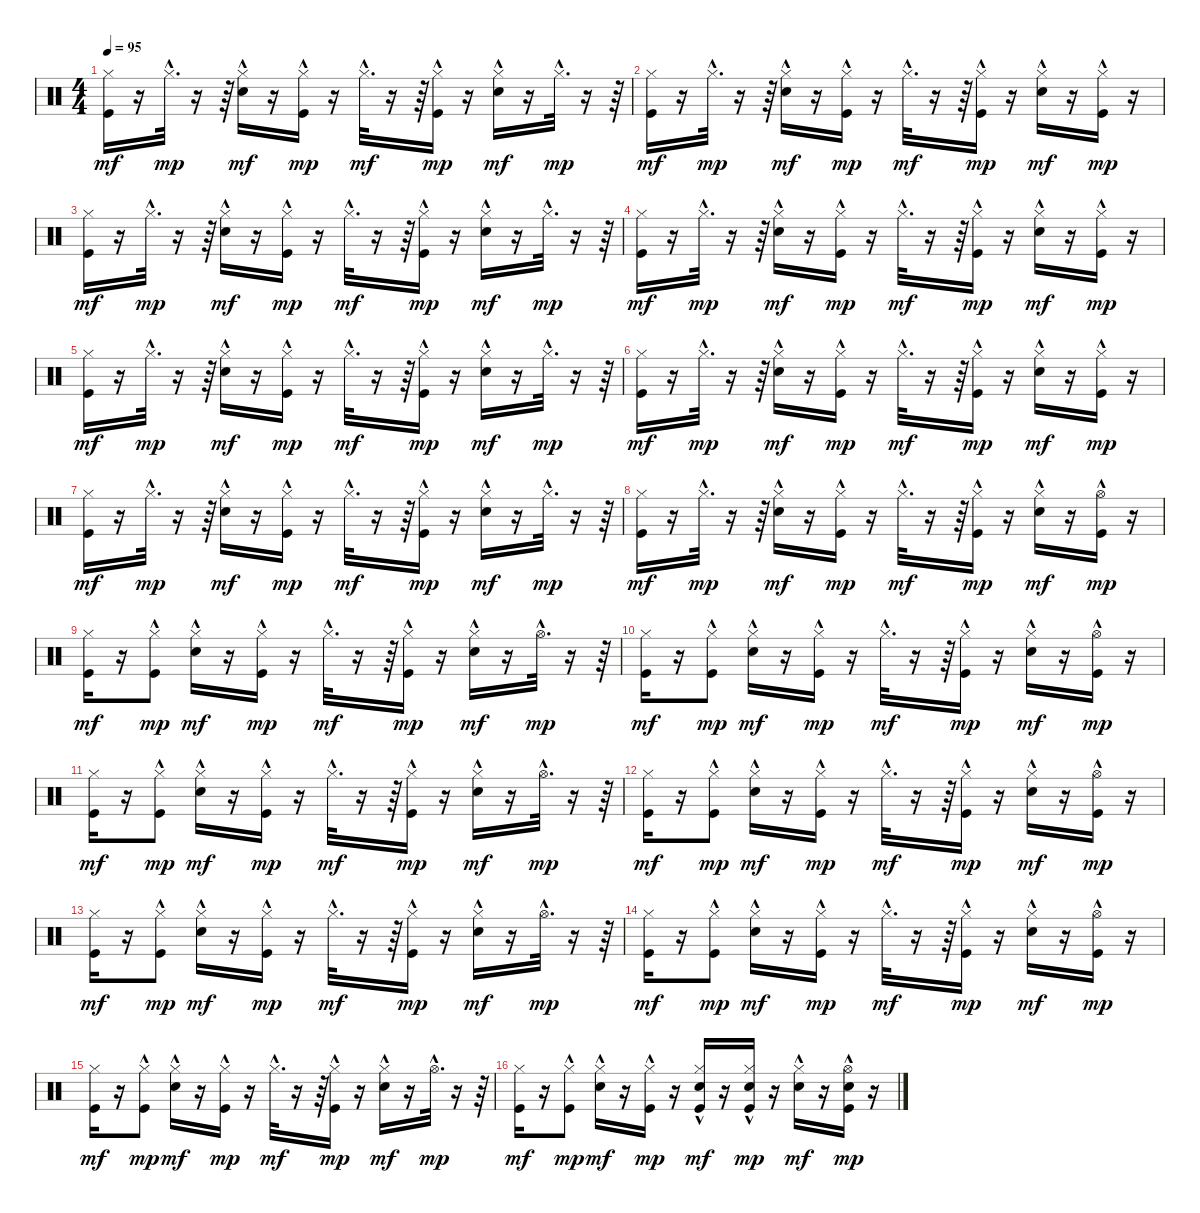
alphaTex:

\track "" {instrument percussion}
\staff {score}
\articulation defaults
\ts (4 4)
\tempo 95
\clef neutral
\ks c
("Kick (hit)" "Hi-Hat (closed)").16{dy mf} r.16 "Hi-Hat (closed)"{hac}.32{d dy mp} r.16 r.64 ("Electric Snare (hit)" "Hi-Hat (closed)"{hac}).16{dy mf} r.16 ("Kick (hit)" "Hi-Hat (closed)"{hac}).16{dy mp} r.16 "Hi-Hat (closed)"{hac}.32{d dy mf} r.16 r.64 ("Kick (hit)" "Hi-Hat (closed)"{hac}).16{dy mp} r.16 ("Electric Snare (hit)" "Hi-Hat (closed)"{hac}).16{dy mf} r.16 "Hi-Hat (closed)"{hac}.32{d dy mp} r.16 r.64 |
("Kick (hit)" "Hi-Hat (closed)").16{dy mf} r.16 "Hi-Hat (closed)"{hac}.32{d dy mp} r.16 r.64 ("Electric Snare (hit)" "Hi-Hat (closed)"{hac}).16{dy mf} r.16 ("Kick (hit)" "Hi-Hat (closed)"{hac}).16{dy mp} r.16 "Hi-Hat (closed)"{hac}.32{d dy mf} r.16 r.64 ("Kick (hit)" "Hi-Hat (closed)"{hac}).16{dy mp} r.16 ("Electric Snare (hit)" "Hi-Hat (closed)"{hac}).16{dy mf} r.16 ("Kick (hit)" "Hi-Hat (closed)"{hac}).16{dy mp} r.16 |
("Kick (hit)" "Hi-Hat (closed)").16{dy mf} r.16 "Hi-Hat (closed)"{hac}.32{d dy mp} r.16 r.64 ("Electric Snare (hit)" "Hi-Hat (closed)"{hac}).16{dy mf} r.16 ("Kick (hit)" "Hi-Hat (closed)"{hac}).16{dy mp} r.16 "Hi-Hat (closed)"{hac}.32{d dy mf} r.16 r.64 ("Kick (hit)" "Hi-Hat (closed)"{hac}).16{dy mp} r.16 ("Electric Snare (hit)" "Hi-Hat (closed)"{hac}).16{dy mf} r.16 "Hi-Hat (closed)"{hac}.32{d dy mp} r.16 r.64 |
("Kick (hit)" "Hi-Hat (closed)").16{dy mf} r.16 "Hi-Hat (closed)"{hac}.32{d dy mp} r.16 r.64 ("Electric Snare (hit)" "Hi-Hat (closed)"{hac}).16{dy mf} r.16 ("Kick (hit)" "Hi-Hat (closed)"{hac}).16{dy mp} r.16 "Hi-Hat (closed)"{hac}.32{d dy mf} r.16 r.64 ("Kick (hit)" "Hi-Hat (closed)"{hac}).16{dy mp} r.16 ("Electric Snare (hit)" "Hi-Hat (closed)"{hac}).16{dy mf} r.16 ("Kick (hit)" "Hi-Hat (closed)"{hac}).16{dy mp} r.16 |
("Kick (hit)" "Hi-Hat (closed)").16{dy mf} r.16 "Hi-Hat (closed)"{hac}.32{d dy mp} r.16 r.64 ("Electric Snare (hit)" "Hi-Hat (closed)"{hac}).16{dy mf} r.16 ("Kick (hit)" "Hi-Hat (closed)"{hac}).16{dy mp} r.16 "Hi-Hat (closed)"{hac}.32{d dy mf} r.16 r.64 ("Kick (hit)" "Hi-Hat (closed)"{hac}).16{dy mp} r.16 ("Electric Snare (hit)" "Hi-Hat (closed)"{hac}).16{dy mf} r.16 "Hi-Hat (closed)"{hac}.32{d dy mp} r.16 r.64 |
("Kick (hit)" "Hi-Hat (closed)").16{dy mf} r.16 "Hi-Hat (closed)"{hac}.32{d dy mp} r.16 r.64 ("Electric Snare (hit)" "Hi-Hat (closed)"{hac}).16{dy mf} r.16 ("Kick (hit)" "Hi-Hat (closed)"{hac}).16{dy mp} r.16 "Hi-Hat (closed)"{hac}.32{d dy mf} r.16 r.64 ("Kick (hit)" "Hi-Hat (closed)"{hac}).16{dy mp} r.16 ("Electric Snare (hit)" "Hi-Hat (closed)"{hac}).16{dy mf} r.16 ("Kick (hit)" "Hi-Hat (closed)"{hac}).16{dy mp} r.16 |
("Kick (hit)" "Hi-Hat (closed)").16{dy mf} r.16 "Hi-Hat (closed)"{hac}.32{d dy mp} r.16 r.64 ("Electric Snare (hit)" "Hi-Hat (closed)"{hac}).16{dy mf} r.16 ("Kick (hit)" "Hi-Hat (closed)"{hac}).16{dy mp} r.16 "Hi-Hat (closed)"{hac}.32{d dy mf} r.16 r.64 ("Kick (hit)" "Hi-Hat (closed)"{hac}).16{dy mp} r.16 ("Electric Snare (hit)" "Hi-Hat (closed)"{hac}).16{dy mf} r.16 "Hi-Hat (closed)"{hac}.32{d dy mp} r.16 r.64 |
("Kick (hit)" "Hi-Hat (closed)").16{dy mf} r.16 "Hi-Hat (closed)"{hac}.32{d dy mp} r.16 r.64 ("Electric Snare (hit)" "Hi-Hat (closed)"{hac}).16{dy mf} r.16 ("Kick (hit)" "Hi-Hat (closed)"{hac}).16{dy mp} r.16 "Hi-Hat (closed)"{hac}.32{d dy mf} r.16 r.64 ("Kick (hit)" "Hi-Hat (closed)"{hac}).16{dy mp} r.16 ("Electric Snare (hit)" "Hi-Hat (closed)"{hac}).16{dy mf} r.16 ("Kick (hit)" "Hi-Hat (open)"{hac}).16{dy mp} r.16 |
("Kick (hit)" "Hi-Hat (closed)").16{dy mf} r.16 ("Kick (hit)" "Hi-Hat (closed)"{hac}).8{dy mp} ("Electric Snare (hit)" "Hi-Hat (closed)"{hac}).16{dy mf} r.16 ("Kick (hit)" "Hi-Hat (closed)"{hac}).16{dy mp} r.16 "Hi-Hat (closed)"{hac}.32{d dy mf} r.16 r.64 ("Kick (hit)" "Hi-Hat (closed)"{hac}).16{dy mp} r.16 ("Electric Snare (hit)" "Hi-Hat (closed)"{hac}).16{dy mf} r.16 "Hi-Hat (open)"{hac}.32{d dy mp} r.16 r.64 |
("Kick (hit)" "Hi-Hat (closed)").16{dy mf} r.16 ("Kick (hit)" "Hi-Hat (closed)"{hac}).8{dy mp} ("Electric Snare (hit)" "Hi-Hat (closed)"{hac}).16{dy mf} r.16 ("Kick (hit)" "Hi-Hat (closed)"{hac}).16{dy mp} r.16 "Hi-Hat (closed)"{hac}.32{d dy mf} r.16 r.64 ("Kick (hit)" "Hi-Hat (closed)"{hac}).16{dy mp} r.16 ("Electric Snare (hit)" "Hi-Hat (closed)"{hac}).16{dy mf} r.16 ("Kick (hit)" "Hi-Hat (open)"{hac}).16{dy mp} r.16 |
("Kick (hit)" "Hi-Hat (closed)").16{dy mf} r.16 ("Kick (hit)" "Hi-Hat (closed)"{hac}).8{dy mp} ("Electric Snare (hit)" "Hi-Hat (closed)"{hac}).16{dy mf} r.16 ("Kick (hit)" "Hi-Hat (closed)"{hac}).16{dy mp} r.16 "Hi-Hat (closed)"{hac}.32{d dy mf} r.16 r.64 ("Kick (hit)" "Hi-Hat (closed)"{hac}).16{dy mp} r.16 ("Electric Snare (hit)" "Hi-Hat (closed)"{hac}).16{dy mf} r.16 "Hi-Hat (open)"{hac}.32{d dy mp} r.16 r.64 |
("Kick (hit)" "Hi-Hat (closed)").16{dy mf} r.16 ("Kick (hit)" "Hi-Hat (closed)"{hac}).8{dy mp} ("Electric Snare (hit)" "Hi-Hat (closed)"{hac}).16{dy mf} r.16 ("Kick (hit)" "Hi-Hat (closed)"{hac}).16{dy mp} r.16 "Hi-Hat (closed)"{hac}.32{d dy mf} r.16 r.64 ("Kick (hit)" "Hi-Hat (closed)"{hac}).16{dy mp} r.16 ("Electric Snare (hit)" "Hi-Hat (closed)"{hac}).16{dy mf} r.16 ("Kick (hit)" "Hi-Hat (open)"{hac}).16{dy mp} r.16 |
("Kick (hit)" "Hi-Hat (closed)").16{dy mf} r.16 ("Kick (hit)" "Hi-Hat (closed)"{hac}).8{dy mp} ("Electric Snare (hit)" "Hi-Hat (closed)"{hac}).16{dy mf} r.16 ("Kick (hit)" "Hi-Hat (closed)"{hac}).16{dy mp} r.16 "Hi-Hat (closed)"{hac}.32{d dy mf} r.16 r.64 ("Kick (hit)" "Hi-Hat (closed)"{hac}).16{dy mp} r.16 ("Electric Snare (hit)" "Hi-Hat (closed)"{hac}).16{dy mf} r.16 "Hi-Hat (open)"{hac}.32{d dy mp} r.16 r.64 |
("Kick (hit)" "Hi-Hat (closed)").16{dy mf} r.16 ("Kick (hit)" "Hi-Hat (closed)"{hac}).8{dy mp} ("Electric Snare (hit)" "Hi-Hat (closed)"{hac}).16{dy mf} r.16 ("Kick (hit)" "Hi-Hat (closed)"{hac}).16{dy mp} r.16 "Hi-Hat (closed)"{hac}.32{d dy mf} r.16 r.64 ("Kick (hit)" "Hi-Hat (closed)"{hac}).16{dy mp} r.16 ("Electric Snare (hit)" "Hi-Hat (closed)"{hac}).16{dy mf} r.16 ("Kick (hit)" "Hi-Hat (open)"{hac}).16{dy mp} r.16 |
("Kick (hit)" "Hi-Hat (closed)").16{dy mf} r.16 ("Kick (hit)" "Hi-Hat (closed)"{hac}).8{dy mp} ("Electric Snare (hit)" "Hi-Hat (closed)"{hac}).16{dy mf} r.16 ("Kick (hit)" "Hi-Hat (closed)"{hac}).16{dy mp} r.16 "Hi-Hat (closed)"{hac}.32{d dy mf} r.16 r.64 ("Kick (hit)" "Hi-Hat (closed)"{hac}).16{dy mp} r.16 ("Electric Snare (hit)" "Hi-Hat (closed)"{hac}).16{dy mf} r.16 "Hi-Hat (open)"{hac}.32{d dy mp} r.16 r.64 |
("Kick (hit)" "Hi-Hat (closed)").16{dy mf} r.16 ("Kick (hit)" "Hi-Hat (closed)"{hac}).8{dy mp} ("Electric Snare (hit)" "Hi-Hat (closed)"{hac}).16{dy mf} r.16 ("Kick (hit)" "Hi-Hat (closed)"{hac}).16{dy mp} r.16 ("Kick (hit)" "Electric Snare (hit)" "Hi-Hat (closed)"{hac}).16{dy mf} r.16 ("Kick (hit)" "Electric Snare (hit)" "Hi-Hat (closed)"{hac}).16{dy mp} r.16 ("Electric Snare (hit)" "Hi-Hat (closed)"{hac}).16{dy mf} r.16 ("Kick (hit)" "Electric Snare (hit)" "Hi-Hat (open)"{hac}).16{dy mp} r.16
